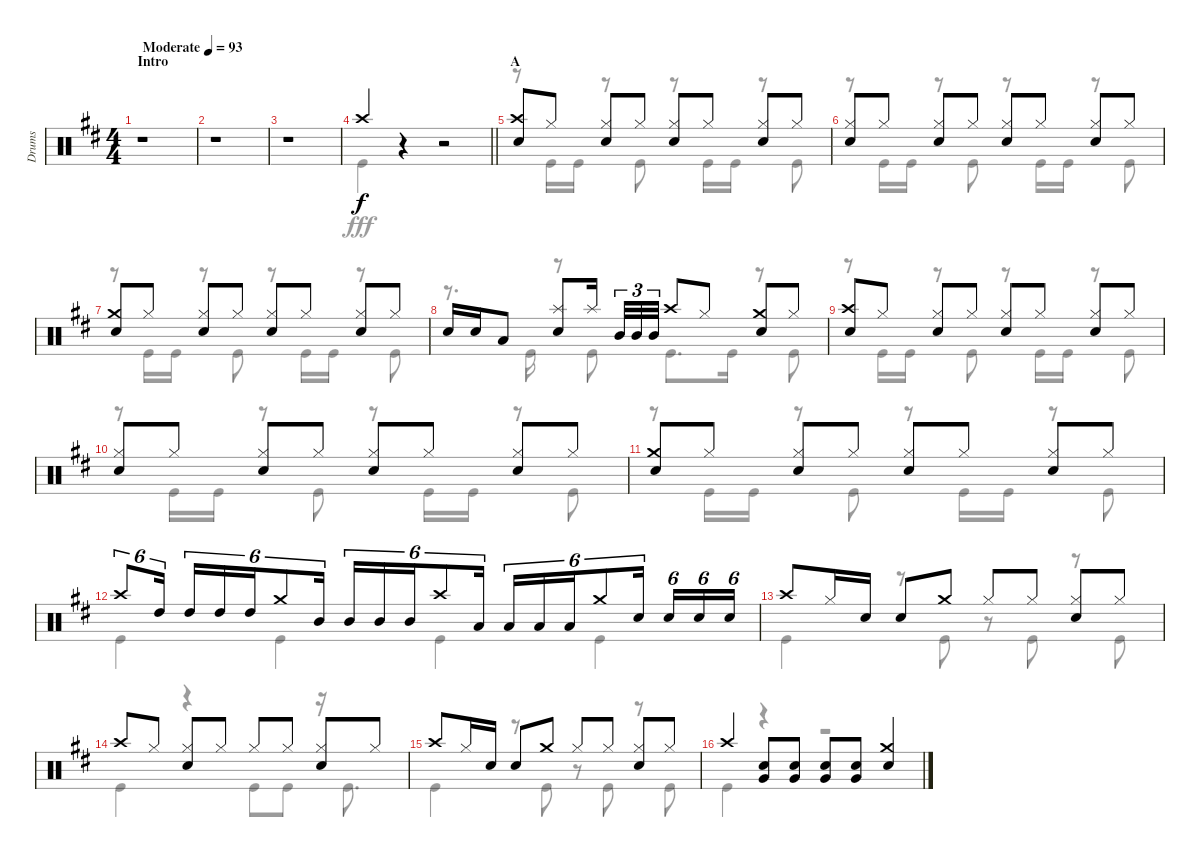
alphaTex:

\track ("Drums" "Drums") {instrument percussion}
\staff {score}
\articulation defaults
\voice
\ts (4 4)
\section ("" "Intro")
\tempo (93 "Moderate")
\clef neutral
\ks d
r.1{dy f} |
r.1 |
r.1 |
\barLineRight lightlight "Crash high (hit)".4
r.4 r.2 |
\section ("" "A")
("Crash high (hit)" "Snare (hit) 2").8 "Hi-Hat (closed)".8 ("Hi-Hat (closed)" "Snare (hit) 2").8 "Hi-Hat (closed)".8 ("Hi-Hat (closed)" "Snare (hit) 2").8 "Hi-Hat (closed)".8 ("Hi-Hat (closed)" "Snare (hit) 2").8 "Hi-Hat (closed)".8 |
("Hi-Hat (closed)" "Snare (hit) 2").8 "Hi-Hat (closed)".8 ("Hi-Hat (closed)" "Snare (hit) 2").8 "Hi-Hat (closed)".8 ("Hi-Hat (closed)" "Snare (hit) 2").8 "Hi-Hat (closed)".8 ("Hi-Hat (closed)" "Snare (hit) 2").8 "Hi-Hat (closed)".8 |
("Crash medium (hit)" "Snare (hit) 2").8 "Hi-Hat (closed)".8 ("Hi-Hat (closed)" "Snare (hit) 2").8 "Hi-Hat (closed)".8 ("Hi-Hat (closed)" "Snare (hit) 2").8 "Hi-Hat (closed)".8 ("Hi-Hat (closed)" "Snare (hit) 2").8 "Hi-Hat (closed)".8 |
"Snare (hit) 2".16 "Snare (hit) 2".16 "Low Tom (hit)".8 ("Splash (hit)" "Snare (hit) 2").8 "Splash (hit)".16{beam splitsecondary} "Mid Tom (hit)".32{tu (3 2)} "Mid Tom (hit)".32{tu (3 2)} "Mid Tom (hit)".32{tu (3 2)} "Crash high (hit)".8 "Hi-Hat (closed)".8 ("Crash medium (hit)" "Snare (hit) 2").8 "Hi-Hat (closed)".8 |
("Crash high (hit)" "Snare (hit) 2").8 "Hi-Hat (closed)".8 ("Hi-Hat (closed)" "Snare (hit) 2").8 "Hi-Hat (closed)".8 ("Hi-Hat (closed)" "Snare (hit) 2").8 "Hi-Hat (closed)".8 ("Hi-Hat (closed)" "Snare (hit) 2").8 "Hi-Hat (closed)".8 |
("Hi-Hat (closed)" "Snare (hit) 2").8 "Hi-Hat (closed)".8 ("Hi-Hat (closed)" "Snare (hit) 2").8 "Hi-Hat (closed)".8 ("Hi-Hat (closed)" "Snare (hit) 2").8 "Hi-Hat (closed)".8 ("Hi-Hat (closed)" "Snare (hit) 2").8 "Hi-Hat (closed)".8 |
("Crash medium (hit)" "Snare (hit) 2").8 "Hi-Hat (closed)".8 ("Hi-Hat (closed)" "Snare (hit) 2").8 "Hi-Hat (closed)".8 ("Hi-Hat (closed)" "Snare (hit) 2").8 "Hi-Hat (closed)".8 ("Hi-Hat (closed)" "Snare (hit) 2").8 "Hi-Hat (closed)".8 |
"Crash high (hit)".8{tu (6 4)} "High Tom (hit)".16{tu (6 4) beam splitsecondary} "High Tom (hit)".16{tu (6 4)} "High Tom (hit)".16{tu (6 4)} "High Tom (hit)".16{tu (6 4)} "Crash medium (hit)".8{tu (6 4)} "Mid Tom (hit)".16{tu (6 4) beam splitsecondary} "Mid Tom (hit)".16{tu (6 4)} "Mid Tom (hit)".16{tu (6 4)} "Mid Tom (hit)".16{tu (6 4)} "Crash high (hit)".8{tu (6 4)} "Low Tom (hit)".16{tu (6 4) beam splitsecondary} "Low Tom (hit)".16{tu (6 4)} "Low Tom (hit)".16{tu (6 4)} "Low Tom (hit)".16{tu (6 4)} "Crash medium (hit)".8{tu (6 4)} "Snare (hit) 2".16{tu (6 4) beam splitsecondary} "Snare (hit) 2".16{tu (6 4)} "Snare (hit) 2".16{tu (6 4)} "Snare (hit) 2".16{tu (6 4)} |
"Crash high (hit)".8 "Hi-Hat (closed)".16 "Snare (hit) 2".16 "Snare (hit) 2".8 "Crash medium (hit)".8 "Hi-Hat (closed)".8 "Hi-Hat (closed)".8 ("Hi-Hat (closed)" "Snare (hit) 2").8 "Hi-Hat (closed)".8 |
"Crash high (hit)".8 "Hi-Hat (closed)".8 ("Hi-Hat (closed)" "Snare (hit) 2").8 "Hi-Hat (closed)".8 "Hi-Hat (closed)".8 "Hi-Hat (closed)".8 ("Hi-Hat (closed)" "Snare (hit) 2").8 "Hi-Hat (closed)".8 |
"Crash high (hit)".8 "Hi-Hat (closed)".16 "Snare (hit) 2".16 "Snare (hit) 2".8 "Crash medium (hit)".8 "Hi-Hat (closed)".8 "Hi-Hat (closed)".8 ("Hi-Hat (closed)" "Snare (hit) 2").8 "Hi-Hat (closed)".8 |
"Crash high (hit)".4 ("Snare (hit) 2" "Very Low Tom (hit)").8 ("Snare (hit) 2" "Very Low Tom (hit)").8 ("Snare (hit) 2" "Very Low Tom (hit)").8 ("Snare (hit) 2" "Very Low Tom (hit)").8 ("Snare (hit) 2" "Crash medium (hit)").4
\voice
\clef neutral
\ottava regular
\simile none
\ks d
r.1{dy fff} |
r.1 |
r.1 |
\barLineRight lightlight "Kick (hit)".4
r.4 r.2 |
r.8 "Kick (hit)".16 "Kick (hit)".16 r.8 "Kick (hit)".8 r.8 "Kick (hit)".16 "Kick (hit)".16 r.8 "Kick (hit)".8 |
r.8 "Kick (hit)".16 "Kick (hit)".16 r.8 "Kick (hit)".8 r.8 "Kick (hit)".16 "Kick (hit)".16 r.8 "Kick (hit)".8 |
r.8 "Kick (hit)".16 "Kick (hit)".16 r.8 "Kick (hit)".8 r.8 "Kick (hit)".16 "Kick (hit)".16 r.8 "Kick (hit)".8 |
r.8{d} "Kick (hit)".16 r.8 "Kick (hit)".8 "Kick (hit)".8{d} "Kick (hit)".16 r.8 "Kick (hit)".8 |
r.8 "Kick (hit)".16 "Kick (hit)".16 r.8 "Kick (hit)".8 r.8 "Kick (hit)".16 "Kick (hit)".16 r.8 "Kick (hit)".8 |
r.8 "Kick (hit)".16 "Kick (hit)".16 r.8 "Kick (hit)".8 r.8 "Kick (hit)".16 "Kick (hit)".16 r.8 "Kick (hit)".8 |
r.8 "Kick (hit)".16 "Kick (hit)".16 r.8 "Kick (hit)".8 r.8 "Kick (hit)".16 "Kick (hit)".16 r.8 "Kick (hit)".8 |
"Kick (hit)".4 "Kick (hit)".4 "Kick (hit)".4 "Kick (hit)".4 |
"Kick (hit)".4 r.8 "Kick (hit)".8 r.8 "Kick (hit)".8 r.8 "Kick (hit)".8 |
"Kick (hit)".4 r.4 "Kick (hit)".8 "Kick (hit)".8 r.16 "Kick (hit)".8{d} |
"Kick (hit)".4 r.8 "Kick (hit)".8 r.8 "Kick (hit)".8 r.8 "Kick (hit)".8 |
"Kick (hit)".4 r.4 r.2
